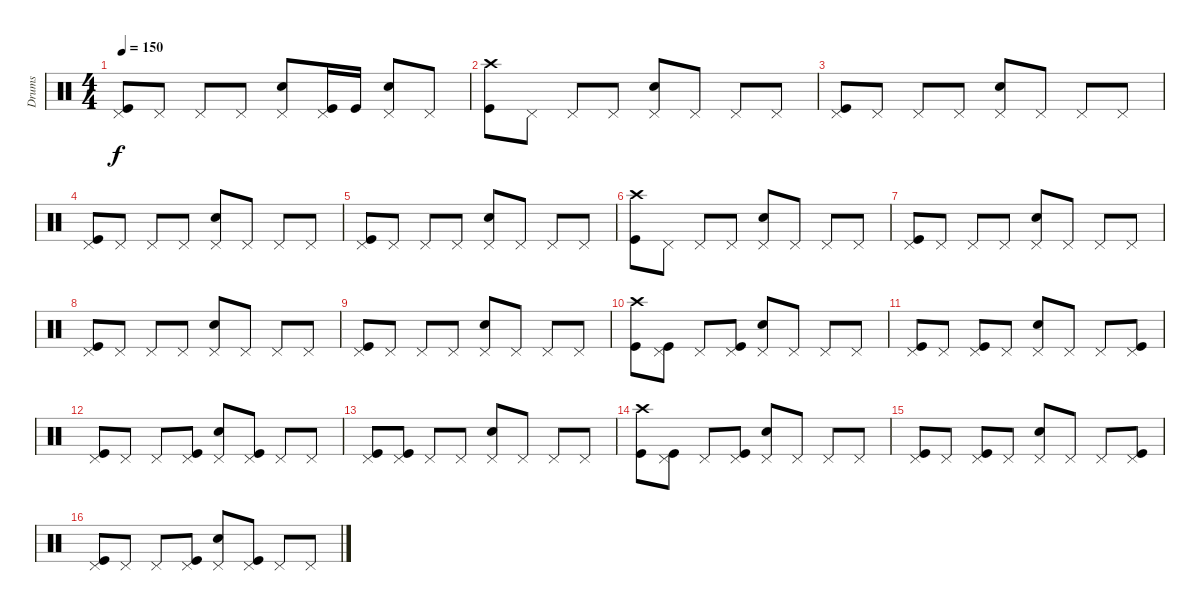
\track ("Drums" "Drums") {instrument percussion}
\staff {score}
\articulation defaults
\ts (4 4)
\tempo 150
\clef neutral
\ks c
("Pedal Hi-Hat (hit)" "Kick (hit)").8{dy f} "Pedal Hi-Hat (hit)".8 "Pedal Hi-Hat (hit)".8 "Pedal Hi-Hat (hit)".8 ("Pedal Hi-Hat (hit)" "Snare (hit) 2").8 ("Pedal Hi-Hat (hit)" "Kick (hit)").16 "Kick (hit)".16 ("Pedal Hi-Hat (hit)" "Snare (hit) 2").8 "Pedal Hi-Hat (hit)".8 |
("Crash high (hit)" "Kick (hit)").8 "Pedal Hi-Hat (hit)".8 "Pedal Hi-Hat (hit)".8 "Pedal Hi-Hat (hit)".8 ("Pedal Hi-Hat (hit)" "Snare (hit) 2").8 "Pedal Hi-Hat (hit)".8 "Pedal Hi-Hat (hit)".8 "Pedal Hi-Hat (hit)".8 |
("Pedal Hi-Hat (hit)" "Kick (hit)").8 "Pedal Hi-Hat (hit)".8 "Pedal Hi-Hat (hit)".8 "Pedal Hi-Hat (hit)".8 ("Pedal Hi-Hat (hit)" "Snare (hit) 2").8 "Pedal Hi-Hat (hit)".8 "Pedal Hi-Hat (hit)".8 "Pedal Hi-Hat (hit)".8 |
("Pedal Hi-Hat (hit)" "Kick (hit)").8 "Pedal Hi-Hat (hit)".8 "Pedal Hi-Hat (hit)".8 "Pedal Hi-Hat (hit)".8 ("Pedal Hi-Hat (hit)" "Snare (hit) 2").8 "Pedal Hi-Hat (hit)".8 "Pedal Hi-Hat (hit)".8 "Pedal Hi-Hat (hit)".8 |
("Pedal Hi-Hat (hit)" "Kick (hit)").8 "Pedal Hi-Hat (hit)".8 "Pedal Hi-Hat (hit)".8 "Pedal Hi-Hat (hit)".8 ("Pedal Hi-Hat (hit)" "Snare (hit) 2").8 "Pedal Hi-Hat (hit)".8 "Pedal Hi-Hat (hit)".8 "Pedal Hi-Hat (hit)".8 |
("Crash high (hit)" "Kick (hit)").8 "Pedal Hi-Hat (hit)".8 "Pedal Hi-Hat (hit)".8 "Pedal Hi-Hat (hit)".8 ("Pedal Hi-Hat (hit)" "Snare (hit) 2").8 "Pedal Hi-Hat (hit)".8 "Pedal Hi-Hat (hit)".8 "Pedal Hi-Hat (hit)".8 |
("Pedal Hi-Hat (hit)" "Kick (hit)").8 "Pedal Hi-Hat (hit)".8 "Pedal Hi-Hat (hit)".8 "Pedal Hi-Hat (hit)".8 ("Pedal Hi-Hat (hit)" "Snare (hit) 2").8 "Pedal Hi-Hat (hit)".8 "Pedal Hi-Hat (hit)".8 "Pedal Hi-Hat (hit)".8 |
("Pedal Hi-Hat (hit)" "Kick (hit)").8 "Pedal Hi-Hat (hit)".8 "Pedal Hi-Hat (hit)".8 "Pedal Hi-Hat (hit)".8 ("Pedal Hi-Hat (hit)" "Snare (hit) 2").8 "Pedal Hi-Hat (hit)".8 "Pedal Hi-Hat (hit)".8 "Pedal Hi-Hat (hit)".8 |
("Pedal Hi-Hat (hit)" "Kick (hit)").8 "Pedal Hi-Hat (hit)".8 "Pedal Hi-Hat (hit)".8 "Pedal Hi-Hat (hit)".8 ("Pedal Hi-Hat (hit)" "Snare (hit) 2").8 "Pedal Hi-Hat (hit)".8 "Pedal Hi-Hat (hit)".8 "Pedal Hi-Hat (hit)".8 |
("Crash high (hit)" "Kick (hit)").8 ("Pedal Hi-Hat (hit)" "Kick (hit)").8 "Pedal Hi-Hat (hit)".8 ("Pedal Hi-Hat (hit)" "Kick (hit)").8 ("Pedal Hi-Hat (hit)" "Snare (hit) 2").8 "Pedal Hi-Hat (hit)".8 "Pedal Hi-Hat (hit)".8 "Pedal Hi-Hat (hit)".8 |
("Pedal Hi-Hat (hit)" "Kick (hit)").8 "Pedal Hi-Hat (hit)".8 ("Pedal Hi-Hat (hit)" "Kick (hit)").8 "Pedal Hi-Hat (hit)".8 ("Pedal Hi-Hat (hit)" "Snare (hit) 2").8 "Pedal Hi-Hat (hit)".8 "Pedal Hi-Hat (hit)".8 ("Pedal Hi-Hat (hit)" "Kick (hit)").8 |
("Pedal Hi-Hat (hit)" "Kick (hit)").8 "Pedal Hi-Hat (hit)".8 "Pedal Hi-Hat (hit)".8 ("Pedal Hi-Hat (hit)" "Kick (hit)").8 ("Pedal Hi-Hat (hit)" "Snare (hit) 2").8 ("Pedal Hi-Hat (hit)" "Kick (hit)").8 "Pedal Hi-Hat (hit)".8 "Pedal Hi-Hat (hit)".8 |
("Pedal Hi-Hat (hit)" "Kick (hit)").8 ("Pedal Hi-Hat (hit)" "Kick (hit)").8 "Pedal Hi-Hat (hit)".8 "Pedal Hi-Hat (hit)".8 ("Pedal Hi-Hat (hit)" "Snare (hit) 2").8 "Pedal Hi-Hat (hit)".8 "Pedal Hi-Hat (hit)".8 "Pedal Hi-Hat (hit)".8 |
("Crash high (hit)" "Kick (hit)").8 ("Pedal Hi-Hat (hit)" "Kick (hit)").8 "Pedal Hi-Hat (hit)".8 ("Pedal Hi-Hat (hit)" "Kick (hit)").8 ("Pedal Hi-Hat (hit)" "Snare (hit) 2").8 "Pedal Hi-Hat (hit)".8 "Pedal Hi-Hat (hit)".8 "Pedal Hi-Hat (hit)".8 |
("Pedal Hi-Hat (hit)" "Kick (hit)").8 "Pedal Hi-Hat (hit)".8 ("Pedal Hi-Hat (hit)" "Kick (hit)").8 "Pedal Hi-Hat (hit)".8 ("Pedal Hi-Hat (hit)" "Snare (hit) 2").8 "Pedal Hi-Hat (hit)".8 "Pedal Hi-Hat (hit)".8 ("Pedal Hi-Hat (hit)" "Kick (hit)").8 |
("Pedal Hi-Hat (hit)" "Kick (hit)").8 "Pedal Hi-Hat (hit)".8 "Pedal Hi-Hat (hit)".8 ("Pedal Hi-Hat (hit)" "Kick (hit)").8 ("Pedal Hi-Hat (hit)" "Snare (hit) 2").8 ("Pedal Hi-Hat (hit)" "Kick (hit)").8 "Pedal Hi-Hat (hit)".8 "Pedal Hi-Hat (hit)".8
